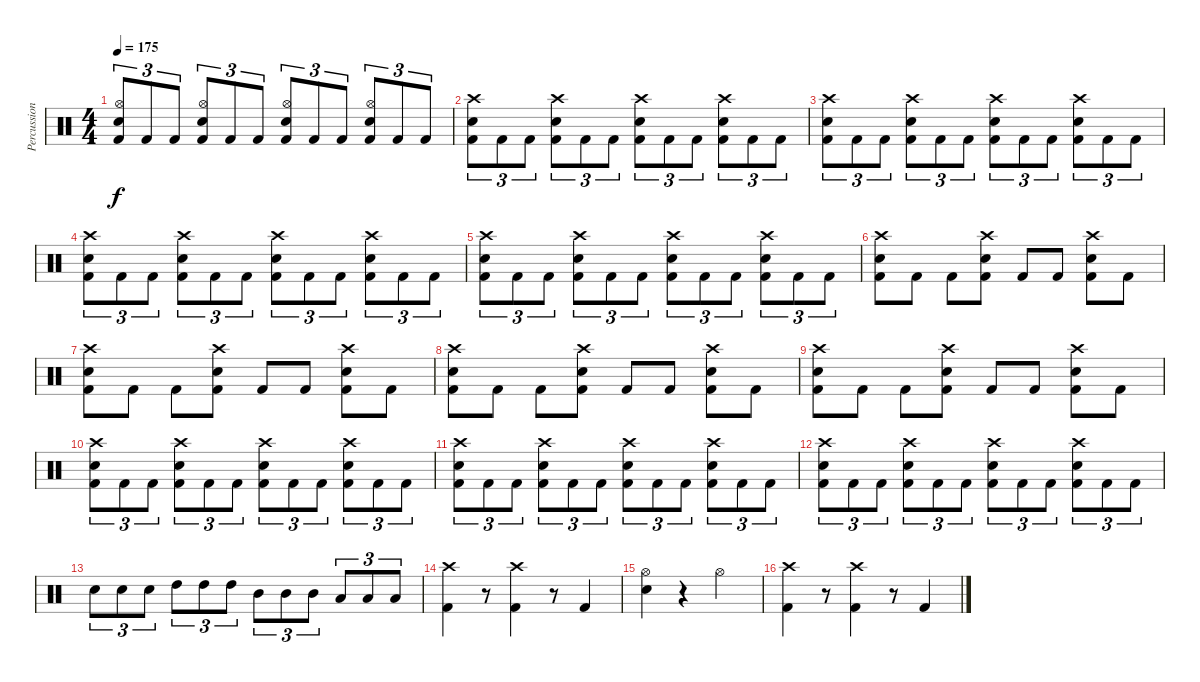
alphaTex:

\track ("Percussion" "Percussion") {instrument percussion}
\staff {score}
\articulation defaults
\ts (4 4)
\tempo 175
\clef neutral
\ks c
("Kick (hit) 2" "Hi-Hat (open)" "Electric Snare (hit)").8{tu (3 2) dy f} "Kick (hit) 2".8{tu (3 2)} "Kick (hit) 2".8{tu (3 2)} ("Kick (hit) 2" "Hi-Hat (open)" "Electric Snare (hit)").8{tu (3 2)} "Kick (hit) 2".8{tu (3 2)} "Kick (hit) 2".8{tu (3 2)} ("Kick (hit) 2" "Hi-Hat (open)" "Electric Snare (hit)").8{tu (3 2)} "Kick (hit) 2".8{tu (3 2)} "Kick (hit) 2".8{tu (3 2)} ("Kick (hit) 2" "Hi-Hat (open)" "Electric Snare (hit)").8{tu (3 2)} "Kick (hit) 2".8{tu (3 2)} "Kick (hit) 2".8{tu (3 2)} |
("Kick (hit) 2" "Crash high (hit)" "Electric Snare (hit)").8{tu (3 2)} "Kick (hit) 2".8{tu (3 2)} "Kick (hit) 2".8{tu (3 2)} ("Kick (hit) 2" "Crash high (hit)" "Electric Snare (hit)").8{tu (3 2)} "Kick (hit) 2".8{tu (3 2)} "Kick (hit) 2".8{tu (3 2)} ("Kick (hit) 2" "Crash high (hit)" "Electric Snare (hit)").8{tu (3 2)} "Kick (hit) 2".8{tu (3 2)} "Kick (hit) 2".8{tu (3 2)} ("Kick (hit) 2" "Crash high (hit)" "Electric Snare (hit)").8{tu (3 2)} "Kick (hit) 2".8{tu (3 2)} "Kick (hit) 2".8{tu (3 2)} |
("Kick (hit) 2" "Crash high (hit)" "Electric Snare (hit)").8{tu (3 2)} "Kick (hit) 2".8{tu (3 2)} "Kick (hit) 2".8{tu (3 2)} ("Kick (hit) 2" "Crash high (hit)" "Electric Snare (hit)").8{tu (3 2)} "Kick (hit) 2".8{tu (3 2)} "Kick (hit) 2".8{tu (3 2)} ("Kick (hit) 2" "Crash high (hit)" "Electric Snare (hit)").8{tu (3 2)} "Kick (hit) 2".8{tu (3 2)} "Kick (hit) 2".8{tu (3 2)} ("Kick (hit) 2" "Crash high (hit)" "Electric Snare (hit)").8{tu (3 2)} "Kick (hit) 2".8{tu (3 2)} "Kick (hit) 2".8{tu (3 2)} |
("Kick (hit) 2" "Crash high (hit)" "Electric Snare (hit)").8{tu (3 2)} "Kick (hit) 2".8{tu (3 2)} "Kick (hit) 2".8{tu (3 2)} ("Kick (hit) 2" "Crash high (hit)" "Electric Snare (hit)").8{tu (3 2)} "Kick (hit) 2".8{tu (3 2)} "Kick (hit) 2".8{tu (3 2)} ("Kick (hit) 2" "Crash high (hit)" "Electric Snare (hit)").8{tu (3 2)} "Kick (hit) 2".8{tu (3 2)} "Kick (hit) 2".8{tu (3 2)} ("Kick (hit) 2" "Crash high (hit)" "Electric Snare (hit)").8{tu (3 2)} "Kick (hit) 2".8{tu (3 2)} "Kick (hit) 2".8{tu (3 2)} |
("Kick (hit) 2" "Crash high (hit)" "Electric Snare (hit)").8{tu (3 2)} "Kick (hit) 2".8{tu (3 2)} "Kick (hit) 2".8{tu (3 2)} ("Kick (hit) 2" "Crash high (hit)" "Electric Snare (hit)").8{tu (3 2)} "Kick (hit) 2".8{tu (3 2)} "Kick (hit) 2".8{tu (3 2)} ("Kick (hit) 2" "Crash high (hit)" "Electric Snare (hit)").8{tu (3 2)} "Kick (hit) 2".8{tu (3 2)} "Kick (hit) 2".8{tu (3 2)} ("Kick (hit) 2" "Crash high (hit)" "Electric Snare (hit)").8{tu (3 2)} "Kick (hit) 2".8{tu (3 2)} "Kick (hit) 2".8{tu (3 2)} |
("Kick (hit) 2" "Crash high (hit)" "Electric Snare (hit)").8 "Kick (hit) 2".8 "Kick (hit) 2".8 ("Kick (hit) 2" "Crash high (hit)" "Electric Snare (hit)").8 "Kick (hit) 2".8 "Kick (hit) 2".8 ("Kick (hit) 2" "Crash high (hit)" "Electric Snare (hit)").8 "Kick (hit) 2".8 |
("Kick (hit) 2" "Crash high (hit)" "Electric Snare (hit)").8 "Kick (hit) 2".8 "Kick (hit) 2".8 ("Kick (hit) 2" "Crash high (hit)" "Electric Snare (hit)").8 "Kick (hit) 2".8 "Kick (hit) 2".8 ("Kick (hit) 2" "Crash high (hit)" "Electric Snare (hit)").8 "Kick (hit) 2".8 |
("Kick (hit) 2" "Crash high (hit)" "Electric Snare (hit)").8 "Kick (hit) 2".8 "Kick (hit) 2".8 ("Kick (hit) 2" "Crash high (hit)" "Electric Snare (hit)").8 "Kick (hit) 2".8 "Kick (hit) 2".8 ("Kick (hit) 2" "Crash high (hit)" "Electric Snare (hit)").8 "Kick (hit) 2".8 |
("Kick (hit) 2" "Crash high (hit)" "Electric Snare (hit)").8 "Kick (hit) 2".8 "Kick (hit) 2".8 ("Kick (hit) 2" "Crash high (hit)" "Electric Snare (hit)").8 "Kick (hit) 2".8 "Kick (hit) 2".8 ("Kick (hit) 2" "Crash high (hit)" "Electric Snare (hit)").8 "Kick (hit) 2".8 |
("Kick (hit) 2" "Crash high (hit)" "Electric Snare (hit)").8{tu (3 2)} "Kick (hit) 2".8{tu (3 2)} "Kick (hit) 2".8{tu (3 2)} ("Kick (hit) 2" "Crash high (hit)" "Electric Snare (hit)").8{tu (3 2)} "Kick (hit) 2".8{tu (3 2)} "Kick (hit) 2".8{tu (3 2)} ("Kick (hit) 2" "Crash high (hit)" "Electric Snare (hit)").8{tu (3 2)} "Kick (hit) 2".8{tu (3 2)} "Kick (hit) 2".8{tu (3 2)} ("Kick (hit) 2" "Crash high (hit)" "Electric Snare (hit)").8{tu (3 2)} "Kick (hit) 2".8{tu (3 2)} "Kick (hit) 2".8{tu (3 2)} |
("Kick (hit) 2" "Crash high (hit)" "Electric Snare (hit)").8{tu (3 2)} "Kick (hit) 2".8{tu (3 2)} "Kick (hit) 2".8{tu (3 2)} ("Kick (hit) 2" "Crash high (hit)" "Electric Snare (hit)").8{tu (3 2)} "Kick (hit) 2".8{tu (3 2)} "Kick (hit) 2".8{tu (3 2)} ("Kick (hit) 2" "Crash high (hit)" "Electric Snare (hit)").8{tu (3 2)} "Kick (hit) 2".8{tu (3 2)} "Kick (hit) 2".8{tu (3 2)} ("Kick (hit) 2" "Crash high (hit)" "Electric Snare (hit)").8{tu (3 2)} "Kick (hit) 2".8{tu (3 2)} "Kick (hit) 2".8{tu (3 2)} |
("Kick (hit) 2" "Crash high (hit)" "Electric Snare (hit)").8{tu (3 2)} "Kick (hit) 2".8{tu (3 2)} "Kick (hit) 2".8{tu (3 2)} ("Kick (hit) 2" "Crash high (hit)" "Electric Snare (hit)").8{tu (3 2)} "Kick (hit) 2".8{tu (3 2)} "Kick (hit) 2".8{tu (3 2)} ("Kick (hit) 2" "Crash high (hit)" "Electric Snare (hit)").8{tu (3 2)} "Kick (hit) 2".8{tu (3 2)} "Kick (hit) 2".8{tu (3 2)} ("Kick (hit) 2" "Crash high (hit)" "Electric Snare (hit)").8{tu (3 2)} "Kick (hit) 2".8{tu (3 2)} "Kick (hit) 2".8{tu (3 2)} |
"Electric Snare (hit)".8{tu (3 2)} "Electric Snare (hit)".8{tu (3 2)} "Electric Snare (hit)".8{tu (3 2)} "High Tom (hit)".8{tu (3 2)} "High Tom (hit)".8{tu (3 2)} "High Tom (hit)".8{tu (3 2)} "Mid Tom (hit)".8{tu (3 2)} "Mid Tom (hit)".8{tu (3 2)} "Mid Tom (hit)".8{tu (3 2)} "Low Tom (hit)".8{tu (3 2)} "Low Tom (hit)".8{tu (3 2)} "Low Tom (hit)".8{tu (3 2)} |
("Kick (hit) 2" "Crash high (hit)").4 r.8 ("Kick (hit) 2" "Crash high (hit)").4 r.8 "Kick (hit) 2".4 |
("Electric Snare (hit)" "Hi-Hat (open)").4 r.4 "Hi-Hat (open)".2 |
("Kick (hit) 2" "Crash high (hit)").4 r.8 ("Kick (hit) 2" "Crash high (hit)").4 r.8 "Kick (hit) 2".4
